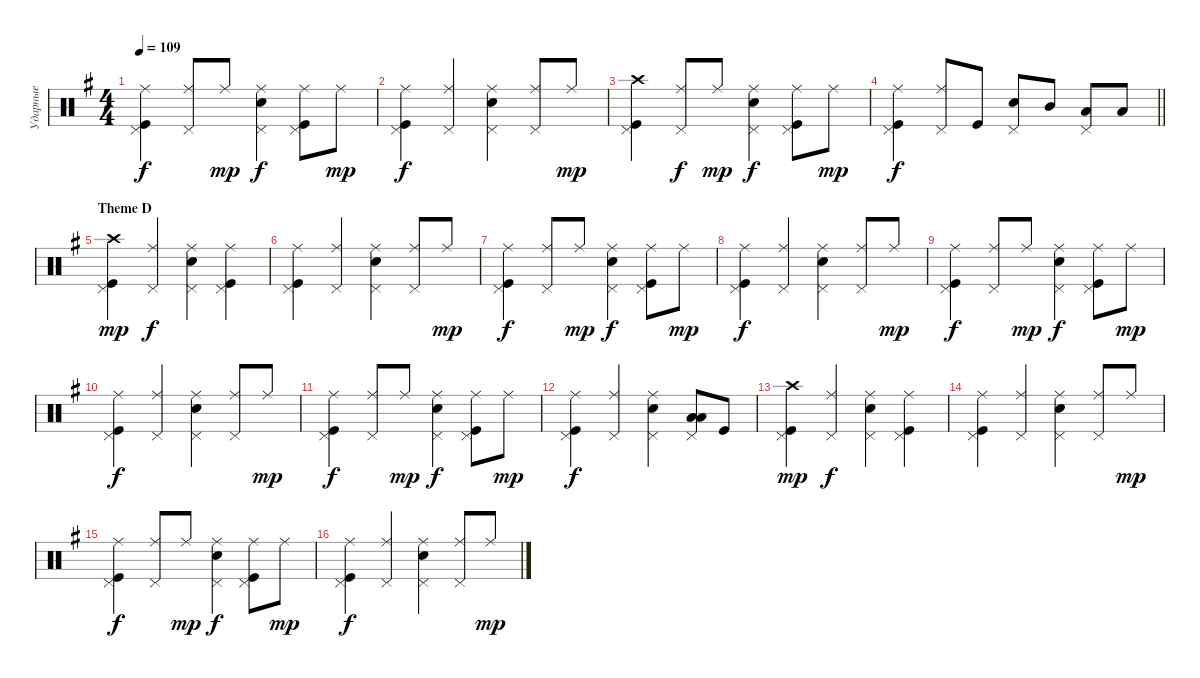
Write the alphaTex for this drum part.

\track ("Ударные" "Ударные") {instrument percussion}
\staff {score}
\articulation defaults
\ts (4 4)
\tempo 109
\clef neutral
\ks eminor
("Ride (middle)" "Pedal Hi-Hat (hit)" "Kick (hit)").4{dy f} ("Ride (middle)" "Pedal Hi-Hat (hit)").8 "Ride (middle)".8{dy mp} ("Ride (middle)" "Pedal Hi-Hat (hit)" "Snare (hit) 2").4{dy f} ("Ride (middle)" "Pedal Hi-Hat (hit)" "Kick (hit)").8 "Ride (middle)".8{dy mp} |
("Ride (middle)" "Pedal Hi-Hat (hit)" "Kick (hit)").4{dy f} ("Ride (middle)" "Pedal Hi-Hat (hit)").4 ("Ride (middle)" "Pedal Hi-Hat (hit)" "Snare (hit) 2").4 ("Ride (middle)" "Pedal Hi-Hat (hit)").8 "Ride (middle)".8{dy mp} |
("Crash high (hit)" "Pedal Hi-Hat (hit)" "Kick (hit)").4 ("Ride (middle)" "Pedal Hi-Hat (hit)").8{dy f} "Ride (middle)".8{dy mp} ("Ride (middle)" "Pedal Hi-Hat (hit)" "Snare (hit) 2").4{dy f} ("Ride (middle)" "Pedal Hi-Hat (hit)" "Kick (hit)").8 "Ride (middle)".8{dy mp} |
\barLineRight lightlight
("Ride (middle)" "Pedal Hi-Hat (hit)" "Kick (hit)").4{dy f} ("Ride (middle)" "Pedal Hi-Hat (hit)").8 "Kick (hit)".8 ("Pedal Hi-Hat (hit)" "Snare (hit) 2").8 "Mid Tom (hit)".8 ("Pedal Hi-Hat (hit)" "Low Tom (hit)").8 "Low Tom (hit)".8 |
\section ("" "Theme D")
("Kick (hit)" "Crash high (hit)" "Pedal Hi-Hat (hit)").4{dy mp} ("Ride (middle)" "Pedal Hi-Hat (hit)").4{dy f} ("Ride (middle)" "Pedal Hi-Hat (hit)" "Snare (hit) 2").4 ("Ride (middle)" "Pedal Hi-Hat (hit)" "Kick (hit)").4 |
("Ride (middle)" "Pedal Hi-Hat (hit)" "Kick (hit)").4 ("Ride (middle)" "Pedal Hi-Hat (hit)").4 ("Ride (middle)" "Pedal Hi-Hat (hit)" "Snare (hit) 2").4 ("Ride (middle)" "Pedal Hi-Hat (hit)").8 "Ride (middle)".8{dy mp} |
("Ride (middle)" "Pedal Hi-Hat (hit)" "Kick (hit)").4{dy f} ("Ride (middle)" "Pedal Hi-Hat (hit)").8 "Ride (middle)".8{dy mp} ("Ride (middle)" "Pedal Hi-Hat (hit)" "Snare (hit) 2").4{dy f} ("Ride (middle)" "Pedal Hi-Hat (hit)" "Kick (hit)").8 "Ride (middle)".8{dy mp} |
("Ride (middle)" "Pedal Hi-Hat (hit)" "Kick (hit)").4{dy f} ("Ride (middle)" "Pedal Hi-Hat (hit)").4 ("Ride (middle)" "Pedal Hi-Hat (hit)" "Snare (hit) 2").4 ("Ride (middle)" "Pedal Hi-Hat (hit)").8 "Ride (middle)".8{dy mp} |
("Ride (middle)" "Pedal Hi-Hat (hit)" "Kick (hit)").4{dy f} ("Ride (middle)" "Pedal Hi-Hat (hit)").8 "Ride (middle)".8{dy mp} ("Ride (middle)" "Pedal Hi-Hat (hit)" "Snare (hit) 2").4{dy f} ("Ride (middle)" "Pedal Hi-Hat (hit)" "Kick (hit)").8 "Ride (middle)".8{dy mp} |
("Ride (middle)" "Pedal Hi-Hat (hit)" "Kick (hit)").4{dy f} ("Ride (middle)" "Pedal Hi-Hat (hit)").4 ("Ride (middle)" "Pedal Hi-Hat (hit)" "Snare (hit) 2").4 ("Ride (middle)" "Pedal Hi-Hat (hit)").8 "Ride (middle)".8{dy mp} |
("Ride (middle)" "Pedal Hi-Hat (hit)" "Kick (hit)").4{dy f} ("Ride (middle)" "Pedal Hi-Hat (hit)").8 "Ride (middle)".8{dy mp} ("Ride (middle)" "Pedal Hi-Hat (hit)" "Snare (hit) 2").4{dy f} ("Ride (middle)" "Pedal Hi-Hat (hit)" "Kick (hit)").8 "Ride (middle)".8{dy mp} |
("Ride (middle)" "Pedal Hi-Hat (hit)" "Kick (hit)").4{dy f} ("Ride (middle)" "Pedal Hi-Hat (hit)").4 ("Ride (middle)" "Pedal Hi-Hat (hit)" "Snare (hit) 2").4 ("Low Tom (hit)" "Low Tom (hit)" "Pedal Hi-Hat (hit)").8 "Kick (hit)".8 |
("Kick (hit)" "Crash high (hit)" "Pedal Hi-Hat (hit)").4{dy mp} ("Ride (middle)" "Pedal Hi-Hat (hit)").4{dy f} ("Ride (middle)" "Pedal Hi-Hat (hit)" "Snare (hit) 2").4 ("Ride (middle)" "Pedal Hi-Hat (hit)" "Kick (hit)").4 |
("Ride (middle)" "Pedal Hi-Hat (hit)" "Kick (hit)").4 ("Ride (middle)" "Pedal Hi-Hat (hit)").4 ("Ride (middle)" "Pedal Hi-Hat (hit)" "Snare (hit) 2").4 ("Ride (middle)" "Pedal Hi-Hat (hit)").8 "Ride (middle)".8{dy mp} |
("Ride (middle)" "Pedal Hi-Hat (hit)" "Kick (hit)").4{dy f} ("Ride (middle)" "Pedal Hi-Hat (hit)").8 "Ride (middle)".8{dy mp} ("Ride (middle)" "Pedal Hi-Hat (hit)" "Snare (hit) 2").4{dy f} ("Ride (middle)" "Pedal Hi-Hat (hit)" "Kick (hit)").8 "Ride (middle)".8{dy mp} |
("Ride (middle)" "Pedal Hi-Hat (hit)" "Kick (hit)").4{dy f} ("Ride (middle)" "Pedal Hi-Hat (hit)").4 ("Ride (middle)" "Pedal Hi-Hat (hit)" "Snare (hit) 2").4 ("Ride (middle)" "Pedal Hi-Hat (hit)").8 "Ride (middle)".8{dy mp}
